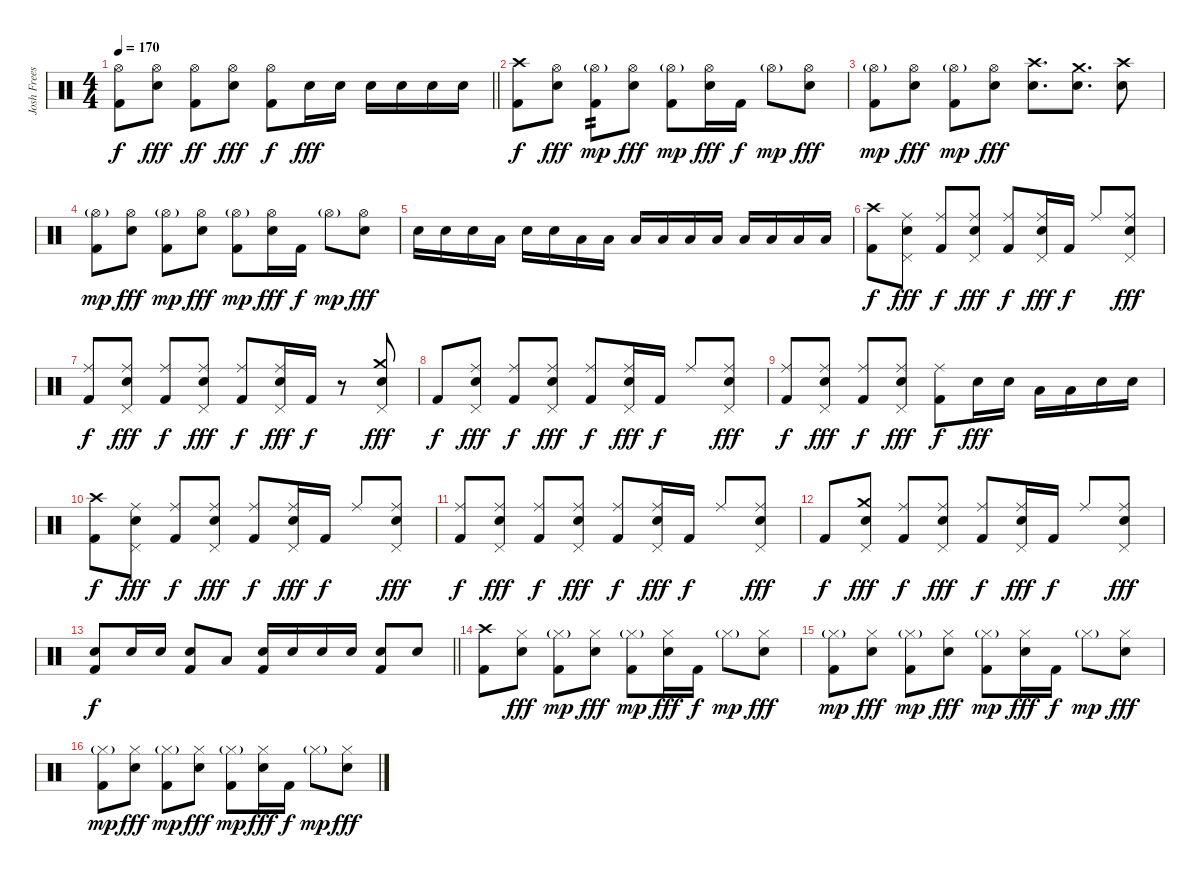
\track ("Josh Freese" "Josh Frees") {solo instrument percussion}
\staff
\articulation defaults
\ts (4 4)
\tempo 170
\clef neutral
\barLineRight lightlight
\ks c
("Hi-Hat (open)" "Kick (hit) 2").8{dy f} ("Hi-Hat (open)" "Electric Snare (hit)").8{dy fff} ("Hi-Hat (open)" "Kick (hit) 2").8{dy ff} ("Hi-Hat (open)" "Electric Snare (hit)").8{dy fff} ("Hi-Hat (open)" "Kick (hit) 2").8{dy f} "Electric Snare (hit)".16{dy fff} "Electric Snare (hit)".16 "Electric Snare (hit)".16 "Electric Snare (hit)".16 "Electric Snare (hit)".16 "Electric Snare (hit)".16 |
("Crash high (hit)" "Kick (hit) 2").8{dy f} ("Hi-Hat (open)" "Electric Snare (hit)").8{dy fff} ("Hi-Hat (open)"{g} "Kick (hit) 2").8{tp 2 dy mp} ("Hi-Hat (open)" "Electric Snare (hit)").8{dy fff} ("Hi-Hat (open)"{g} "Kick (hit) 2").8{dy mp} ("Hi-Hat (open)" "Electric Snare (hit)").16{dy fff} "Kick (hit) 2".16{dy f} "Hi-Hat (open)"{g}.8{dy mp} ("Hi-Hat (open)" "Electric Snare (hit)").8{dy fff} |
("Hi-Hat (open)"{g} "Kick (hit) 2").8{dy mp} ("Hi-Hat (open)" "Electric Snare (hit)").8{dy fff} ("Hi-Hat (open)"{g} "Kick (hit) 2").8{dy mp} ("Hi-Hat (open)" "Electric Snare (hit)").8{dy fff} ("Crash high (hit)" "Electric Snare (hit)").8{d} ("Crash medium (hit)" "Electric Snare (hit)").8{d} ("Crash high (hit)" "Electric Snare (hit)").8 |
("Hi-Hat (open)"{g} "Kick (hit) 2").8{dy mp} ("Hi-Hat (open)" "Electric Snare (hit)").8{dy fff} ("Hi-Hat (open)"{g} "Kick (hit) 2").8{dy mp} ("Hi-Hat (open)" "Electric Snare (hit)").8{dy fff} ("Hi-Hat (open)"{g} "Kick (hit) 2").8{dy mp} ("Hi-Hat (open)" "Electric Snare (hit)").16{dy fff} "Kick (hit) 2".16{dy f} "Hi-Hat (open)"{g}.8{dy mp} ("Hi-Hat (open)" "Electric Snare (hit)").8{dy fff} |
"Electric Snare (hit)".16 "Electric Snare (hit)".16 "Electric Snare (hit)".16 "Low Tom (hit)".16 "Electric Snare (hit)".16 "Electric Snare (hit)".16 "Low Tom (hit)".16 "Low Floor Tom (hit)".16 "Low Tom (hit)".16 "Low Floor Tom (hit)".16 "Low Tom (hit)".16 "Low Floor Tom (hit)".16 "Low Tom (hit)".16 "Low Floor Tom (hit)".16 "Low Floor Tom (hit)".16 "Low Floor Tom (hit)".16 |
("Crash high (hit)" "Kick (hit) 2").8{dy f} ("Ride (middle)" "Electric Snare (hit)" "Pedal Hi-Hat (hit)").8{dy fff} ("Ride (middle)" "Kick (hit) 2").8{dy f} ("Ride (middle)" "Electric Snare (hit)" "Pedal Hi-Hat (hit)").8{dy fff} ("Ride (middle)" "Kick (hit) 2").8{dy f} ("Ride (middle)" "Electric Snare (hit)" "Pedal Hi-Hat (hit)").16{dy fff} "Kick (hit) 2".16{dy f} "Ride (middle)".8 ("Ride (middle)" "Electric Snare (hit)" "Pedal Hi-Hat (hit)").8{dy fff} |
("Ride (middle)" "Kick (hit) 2").8{dy f} ("Ride (middle)" "Electric Snare (hit)" "Pedal Hi-Hat (hit)").8{dy fff} ("Ride (middle)" "Kick (hit) 2").8{dy f} ("Ride (middle)" "Electric Snare (hit)" "Pedal Hi-Hat (hit)").8{dy fff} ("Ride (middle)" "Kick (hit) 2").8{dy f} ("Ride (middle)" "Electric Snare (hit)" "Pedal Hi-Hat (hit)").16{dy fff} "Kick (hit) 2".16{dy f} r.8 ("Crash medium (hit)" "Electric Snare (hit)" "Pedal Hi-Hat (hit)").8{dy fff} |
"Kick (hit) 2".8{dy f} ("Ride (middle)" "Electric Snare (hit)" "Pedal Hi-Hat (hit)").8{dy fff} ("Ride (middle)" "Kick (hit) 2").8{dy f} ("Ride (middle)" "Electric Snare (hit)" "Pedal Hi-Hat (hit)").8{dy fff} ("Ride (middle)" "Kick (hit) 2").8{dy f} ("Ride (middle)" "Electric Snare (hit)" "Pedal Hi-Hat (hit)").16{dy fff} "Kick (hit) 2".16{dy f} "Ride (middle)".8 ("Ride (middle)" "Electric Snare (hit)" "Pedal Hi-Hat (hit)").8{dy fff} |
("Ride (middle)" "Kick (hit) 2").8{dy f} ("Ride (middle)" "Electric Snare (hit)" "Pedal Hi-Hat (hit)").8{dy fff} ("Ride (middle)" "Kick (hit) 2").8{dy f} ("Ride (middle)" "Electric Snare (hit)" "Pedal Hi-Hat (hit)").8{dy fff} ("Ride (middle)" "Kick (hit) 2").8{dy f} "Electric Snare (hit)".16{dy fff} "Electric Snare (hit)".16 "Low Tom (hit)".16 "Low Tom (hit)".16 "Electric Snare (hit)".16 "Electric Snare (hit)".16 |
("Crash high (hit)" "Kick (hit) 2").8{dy f} ("Ride (middle)" "Electric Snare (hit)" "Pedal Hi-Hat (hit)").8{dy fff} ("Ride (middle)" "Kick (hit) 2").8{dy f} ("Ride (middle)" "Electric Snare (hit)" "Pedal Hi-Hat (hit)").8{dy fff} ("Ride (middle)" "Kick (hit) 2").8{dy f} ("Ride (middle)" "Electric Snare (hit)" "Pedal Hi-Hat (hit)").16{dy fff} "Kick (hit) 2".16{dy f} "Ride (middle)".8 ("Ride (middle)" "Electric Snare (hit)" "Pedal Hi-Hat (hit)").8{dy fff} |
("Ride (middle)" "Kick (hit) 2").8{dy f} ("Ride (middle)" "Electric Snare (hit)" "Pedal Hi-Hat (hit)").8{dy fff} ("Ride (middle)" "Kick (hit) 2").8{dy f} ("Ride (middle)" "Electric Snare (hit)" "Pedal Hi-Hat (hit)").8{dy fff} ("Ride (middle)" "Kick (hit) 2").8{dy f} ("Ride (middle)" "Electric Snare (hit)" "Pedal Hi-Hat (hit)").16{dy fff} "Kick (hit) 2".16{dy f} "Ride (middle)".8 ("Ride (middle)" "Electric Snare (hit)" "Pedal Hi-Hat (hit)").8{dy fff} |
"Kick (hit) 2".8{dy f} ("Crash medium (hit)" "Electric Snare (hit)" "Pedal Hi-Hat (hit)").8{dy fff} ("Ride (middle)" "Kick (hit) 2").8{dy f} ("Ride (middle)" "Electric Snare (hit)" "Pedal Hi-Hat (hit)").8{dy fff} ("Ride (middle)" "Kick (hit) 2").8{dy f} ("Ride (middle)" "Electric Snare (hit)" "Pedal Hi-Hat (hit)").16{dy fff} "Kick (hit) 2".16{dy f} "Ride (middle)".8 ("Ride (middle)" "Electric Snare (hit)" "Pedal Hi-Hat (hit)").8{dy fff} |
\barLineRight lightlight
("Electric Snare (hit)" "Kick (hit) 2").8{dy f} "Electric Snare (hit)".16 "Electric Snare (hit)".16 ("Electric Snare (hit)" "Kick (hit) 2").8 "Low Tom (hit)".8 ("Electric Snare (hit)" "Kick (hit) 2").16 "Electric Snare (hit)".16 "Electric Snare (hit)".16 "Electric Snare (hit)".16 ("Electric Snare (hit)" "Kick (hit) 2").8 "Electric Snare (hit)".8 |
("Crash high (hit)" "Kick (hit) 2").8 ("Hi-Hat (closed)" "Electric Snare (hit)").8{dy fff} ("Hi-Hat (closed)"{g} "Kick (hit) 2").8{dy mp} ("Hi-Hat (closed)" "Electric Snare (hit)").8{dy fff} ("Hi-Hat (closed)"{g} "Kick (hit) 2").8{dy mp} ("Hi-Hat (closed)" "Electric Snare (hit)").16{dy fff} "Kick (hit) 2".16{dy f} "Hi-Hat (closed)"{g}.8{dy mp} ("Hi-Hat (closed)" "Electric Snare (hit)").8{dy fff} |
("Hi-Hat (closed)"{g} "Kick (hit) 2").8{dy mp} ("Hi-Hat (closed)" "Electric Snare (hit)").8{dy fff} ("Hi-Hat (closed)"{g} "Kick (hit) 2").8{dy mp} ("Hi-Hat (closed)" "Electric Snare (hit)").8{dy fff} ("Hi-Hat (closed)"{g} "Kick (hit) 2").8{dy mp} ("Hi-Hat (closed)" "Electric Snare (hit)").16{dy fff} "Kick (hit) 2".16{dy f} "Hi-Hat (closed)"{g}.8{dy mp} ("Hi-Hat (closed)" "Electric Snare (hit)").8{dy fff} |
("Hi-Hat (closed)"{g} "Kick (hit) 2").8{dy mp} ("Hi-Hat (closed)" "Electric Snare (hit)").8{dy fff} ("Hi-Hat (closed)"{g} "Kick (hit) 2").8{dy mp} ("Hi-Hat (closed)" "Electric Snare (hit)").8{dy fff} ("Hi-Hat (closed)"{g} "Kick (hit) 2").8{dy mp} ("Hi-Hat (closed)" "Electric Snare (hit)").16{dy fff} "Kick (hit) 2".16{dy f} "Hi-Hat (closed)"{g}.8{dy mp} ("Hi-Hat (closed)" "Electric Snare (hit)").8{dy fff}
